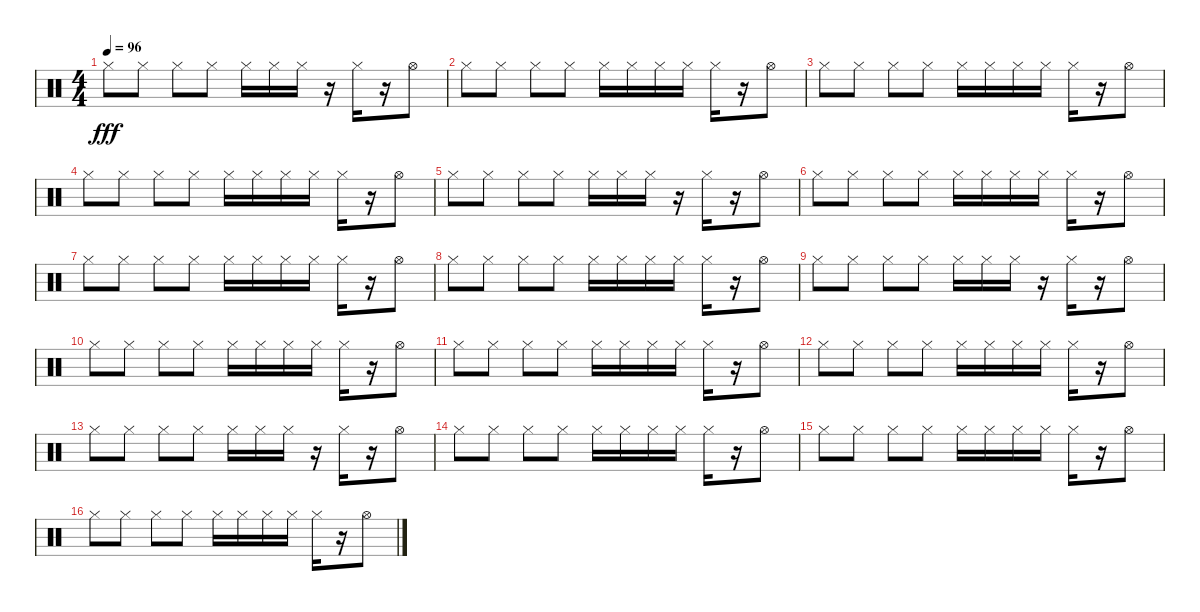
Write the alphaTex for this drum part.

\track "" {instrument percussion}
\staff {score}
\articulation defaults
\ts (4 4)
\tempo 96
\clef neutral
\ks c "Hi-Hat (closed)".8{dy fff} "Hi-Hat (closed)".8 "Hi-Hat (closed)".8 "Hi-Hat (closed)".8 "Hi-Hat (closed)".16 "Hi-Hat (closed)".16 "Hi-Hat (closed)".16
r.16 "Hi-Hat (closed)".16 r.16 "Hi-Hat (open)".8 |
"Hi-Hat (closed)".8 "Hi-Hat (closed)".8 "Hi-Hat (closed)".8 "Hi-Hat (closed)".8 "Hi-Hat (closed)".16 "Hi-Hat (closed)".16 "Hi-Hat (closed)".16 "Hi-Hat (closed)".16 "Hi-Hat (closed)".16 r.16 "Hi-Hat (open)".8 |
"Hi-Hat (closed)".8 "Hi-Hat (closed)".8 "Hi-Hat (closed)".8 "Hi-Hat (closed)".8 "Hi-Hat (closed)".16 "Hi-Hat (closed)".16 "Hi-Hat (closed)".16 "Hi-Hat (closed)".16 "Hi-Hat (closed)".16 r.16 "Hi-Hat (open)".8 |
"Hi-Hat (closed)".8 "Hi-Hat (closed)".8 "Hi-Hat (closed)".8 "Hi-Hat (closed)".8 "Hi-Hat (closed)".16 "Hi-Hat (closed)".16 "Hi-Hat (closed)".16 "Hi-Hat (closed)".16 "Hi-Hat (closed)".16 r.16 "Hi-Hat (open)".8 |
"Hi-Hat (closed)".8 "Hi-Hat (closed)".8 "Hi-Hat (closed)".8 "Hi-Hat (closed)".8 "Hi-Hat (closed)".16 "Hi-Hat (closed)".16 "Hi-Hat (closed)".16 r.16 "Hi-Hat (closed)".16 r.16 "Hi-Hat (open)".8 |
"Hi-Hat (closed)".8 "Hi-Hat (closed)".8 "Hi-Hat (closed)".8 "Hi-Hat (closed)".8 "Hi-Hat (closed)".16 "Hi-Hat (closed)".16 "Hi-Hat (closed)".16 "Hi-Hat (closed)".16 "Hi-Hat (closed)".16 r.16 "Hi-Hat (open)".8 |
"Hi-Hat (closed)".8 "Hi-Hat (closed)".8 "Hi-Hat (closed)".8 "Hi-Hat (closed)".8 "Hi-Hat (closed)".16 "Hi-Hat (closed)".16 "Hi-Hat (closed)".16 "Hi-Hat (closed)".16 "Hi-Hat (closed)".16 r.16 "Hi-Hat (open)".8 |
"Hi-Hat (closed)".8 "Hi-Hat (closed)".8 "Hi-Hat (closed)".8 "Hi-Hat (closed)".8 "Hi-Hat (closed)".16 "Hi-Hat (closed)".16 "Hi-Hat (closed)".16 "Hi-Hat (closed)".16 "Hi-Hat (closed)".16 r.16 "Hi-Hat (open)".8 |
"Hi-Hat (closed)".8 "Hi-Hat (closed)".8 "Hi-Hat (closed)".8 "Hi-Hat (closed)".8 "Hi-Hat (closed)".16 "Hi-Hat (closed)".16 "Hi-Hat (closed)".16 r.16 "Hi-Hat (closed)".16 r.16 "Hi-Hat (open)".8 |
"Hi-Hat (closed)".8 "Hi-Hat (closed)".8 "Hi-Hat (closed)".8 "Hi-Hat (closed)".8 "Hi-Hat (closed)".16 "Hi-Hat (closed)".16 "Hi-Hat (closed)".16 "Hi-Hat (closed)".16 "Hi-Hat (closed)".16 r.16 "Hi-Hat (open)".8 |
"Hi-Hat (closed)".8 "Hi-Hat (closed)".8 "Hi-Hat (closed)".8 "Hi-Hat (closed)".8 "Hi-Hat (closed)".16 "Hi-Hat (closed)".16 "Hi-Hat (closed)".16 "Hi-Hat (closed)".16 "Hi-Hat (closed)".16 r.16 "Hi-Hat (open)".8 |
"Hi-Hat (closed)".8 "Hi-Hat (closed)".8 "Hi-Hat (closed)".8 "Hi-Hat (closed)".8 "Hi-Hat (closed)".16 "Hi-Hat (closed)".16 "Hi-Hat (closed)".16 "Hi-Hat (closed)".16 "Hi-Hat (closed)".16 r.16 "Hi-Hat (open)".8 |
"Hi-Hat (closed)".8 "Hi-Hat (closed)".8 "Hi-Hat (closed)".8 "Hi-Hat (closed)".8 "Hi-Hat (closed)".16 "Hi-Hat (closed)".16 "Hi-Hat (closed)".16 r.16 "Hi-Hat (closed)".16 r.16 "Hi-Hat (open)".8 |
"Hi-Hat (closed)".8 "Hi-Hat (closed)".8 "Hi-Hat (closed)".8 "Hi-Hat (closed)".8 "Hi-Hat (closed)".16 "Hi-Hat (closed)".16 "Hi-Hat (closed)".16 "Hi-Hat (closed)".16 "Hi-Hat (closed)".16 r.16 "Hi-Hat (open)".8 |
"Hi-Hat (closed)".8 "Hi-Hat (closed)".8 "Hi-Hat (closed)".8 "Hi-Hat (closed)".8 "Hi-Hat (closed)".16 "Hi-Hat (closed)".16 "Hi-Hat (closed)".16 "Hi-Hat (closed)".16 "Hi-Hat (closed)".16 r.16 "Hi-Hat (open)".8 |
"Hi-Hat (closed)".8 "Hi-Hat (closed)".8 "Hi-Hat (closed)".8 "Hi-Hat (closed)".8 "Hi-Hat (closed)".16 "Hi-Hat (closed)".16 "Hi-Hat (closed)".16 "Hi-Hat (closed)".16 "Hi-Hat (closed)".16 r.16 "Hi-Hat (open)".8
